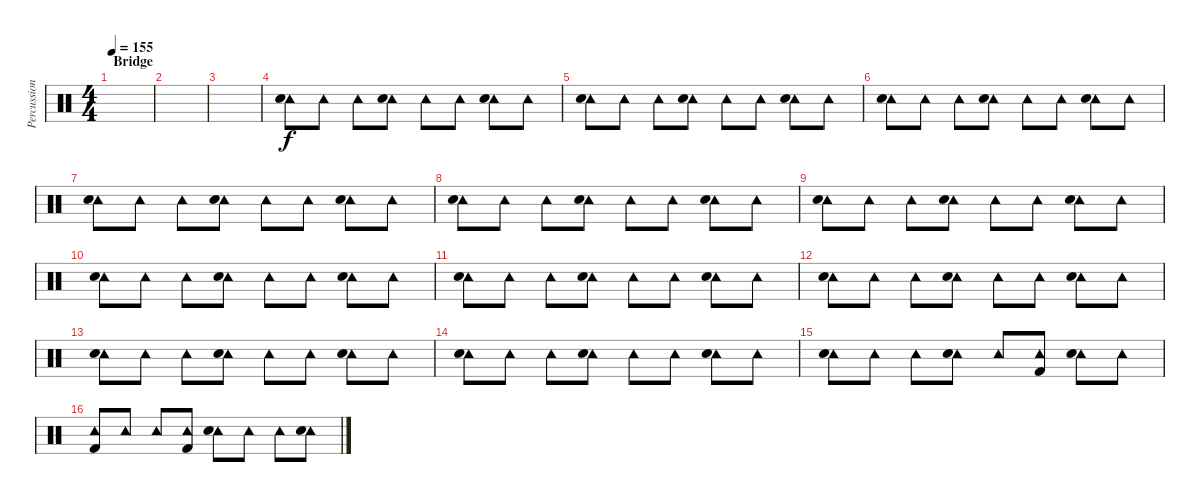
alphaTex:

\track ("Percussion" "Percussion") {instrument percussion}
\staff {score}
\articulation defaults
\ts (4 4)
\section ("" "Bridge")
\tempo 155
\clef neutral
\ks c
|
|
|
("Tambourine (hit)" "Electric Snare (hit)").8 "Tambourine (hit)".8 "Tambourine (hit)".8 ("Tambourine (hit)" "Electric Snare (hit)").8 "Tambourine (hit)".8 "Tambourine (hit)".8 ("Tambourine (hit)" "Electric Snare (hit)").8 "Tambourine (hit)".8 |
("Tambourine (hit)" "Electric Snare (hit)").8 "Tambourine (hit)".8 "Tambourine (hit)".8 ("Tambourine (hit)" "Electric Snare (hit)").8 "Tambourine (hit)".8 "Tambourine (hit)".8 ("Tambourine (hit)" "Electric Snare (hit)").8 "Tambourine (hit)".8 |
("Tambourine (hit)" "Electric Snare (hit)").8 "Tambourine (hit)".8 "Tambourine (hit)".8 ("Tambourine (hit)" "Electric Snare (hit)").8 "Tambourine (hit)".8 "Tambourine (hit)".8 ("Tambourine (hit)" "Electric Snare (hit)").8 "Tambourine (hit)".8 |
("Tambourine (hit)" "Electric Snare (hit)").8 "Tambourine (hit)".8 "Tambourine (hit)".8 ("Tambourine (hit)" "Electric Snare (hit)").8 "Tambourine (hit)".8 "Tambourine (hit)".8 ("Tambourine (hit)" "Electric Snare (hit)").8 "Tambourine (hit)".8 |
("Tambourine (hit)" "Electric Snare (hit)").8 "Tambourine (hit)".8 "Tambourine (hit)".8 ("Tambourine (hit)" "Electric Snare (hit)").8 "Tambourine (hit)".8 "Tambourine (hit)".8 ("Tambourine (hit)" "Electric Snare (hit)").8 "Tambourine (hit)".8 |
("Tambourine (hit)" "Electric Snare (hit)").8 "Tambourine (hit)".8 "Tambourine (hit)".8 ("Tambourine (hit)" "Electric Snare (hit)").8 "Tambourine (hit)".8 "Tambourine (hit)".8 ("Tambourine (hit)" "Electric Snare (hit)").8 "Tambourine (hit)".8 |
("Tambourine (hit)" "Electric Snare (hit)").8 "Tambourine (hit)".8 "Tambourine (hit)".8 ("Tambourine (hit)" "Electric Snare (hit)").8 "Tambourine (hit)".8 "Tambourine (hit)".8 ("Tambourine (hit)" "Electric Snare (hit)").8 "Tambourine (hit)".8 |
("Tambourine (hit)" "Electric Snare (hit)").8 "Tambourine (hit)".8 "Tambourine (hit)".8 ("Tambourine (hit)" "Electric Snare (hit)").8 "Tambourine (hit)".8 "Tambourine (hit)".8 ("Tambourine (hit)" "Electric Snare (hit)").8 "Tambourine (hit)".8 |
("Tambourine (hit)" "Electric Snare (hit)").8 "Tambourine (hit)".8 "Tambourine (hit)".8 ("Tambourine (hit)" "Electric Snare (hit)").8 "Tambourine (hit)".8 "Tambourine (hit)".8 ("Tambourine (hit)" "Electric Snare (hit)").8 "Tambourine (hit)".8 |
("Tambourine (hit)" "Electric Snare (hit)").8 "Tambourine (hit)".8 "Tambourine (hit)".8 ("Tambourine (hit)" "Electric Snare (hit)").8 "Tambourine (hit)".8 "Tambourine (hit)".8 ("Tambourine (hit)" "Electric Snare (hit)").8 "Tambourine (hit)".8 |
("Tambourine (hit)" "Electric Snare (hit)").8 "Tambourine (hit)".8 "Tambourine (hit)".8 ("Tambourine (hit)" "Electric Snare (hit)").8 "Tambourine (hit)".8 "Tambourine (hit)".8 ("Tambourine (hit)" "Electric Snare (hit)").8 "Tambourine (hit)".8 |
("Tambourine (hit)" "Electric Snare (hit)").8 "Tambourine (hit)".8 "Tambourine (hit)".8 ("Tambourine (hit)" "Electric Snare (hit)").8 "Tambourine (hit)".8 ("Tambourine (hit)" "Kick (hit) 2").8 ("Tambourine (hit)" "Electric Snare (hit)").8 "Tambourine (hit)".8 |
("Tambourine (hit)" "Kick (hit) 2").8 "Tambourine (hit)".8 "Tambourine (hit)".8 ("Tambourine (hit)" "Kick (hit) 2").8 ("Tambourine (hit)" "Electric Snare (hit)").8 "Tambourine (hit)".8 "Tambourine (hit)".8 ("Tambourine (hit)" "Electric Snare (hit)").8
